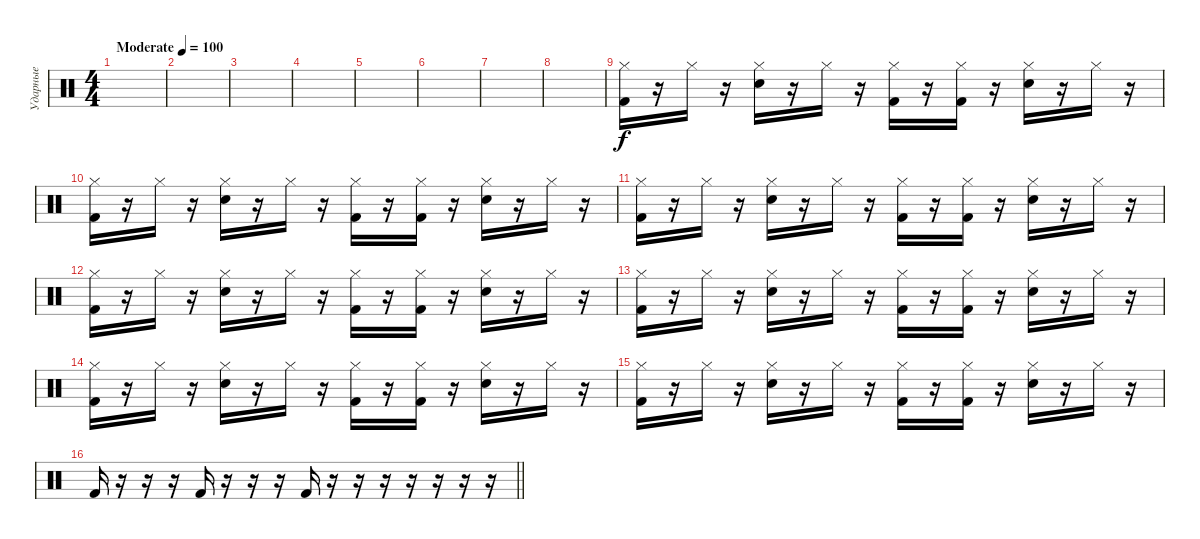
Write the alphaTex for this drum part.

\track ("Ударные" "Ударные") {instrument percussion}
\staff {score}
\articulation defaults
\ts (4 4)
\tempo (100 "Moderate")
\clef neutral
\ks c
|
|
|
|
|
|
|
|
("Kick (hit) 2" "Hi-Hat (closed)").16 r.16 "Hi-Hat (closed)".16 r.16 ("Snare (hit) 2" "Hi-Hat (closed)").16 r.16 "Hi-Hat (closed)".16 r.16 ("Kick (hit) 2" "Hi-Hat (closed)").16 r.16 ("Kick (hit) 2" "Hi-Hat (closed)").16 r.16 ("Snare (hit) 2" "Hi-Hat (closed)").16 r.16 "Hi-Hat (closed)".16 r.16 |
("Kick (hit) 2" "Hi-Hat (closed)").16 r.16 "Hi-Hat (closed)".16 r.16 ("Snare (hit) 2" "Hi-Hat (closed)").16 r.16 "Hi-Hat (closed)".16 r.16 ("Kick (hit) 2" "Hi-Hat (closed)").16 r.16 ("Kick (hit) 2" "Hi-Hat (closed)").16 r.16 ("Snare (hit) 2" "Hi-Hat (closed)").16 r.16 "Hi-Hat (closed)".16 r.16 |
("Kick (hit) 2" "Hi-Hat (closed)").16 r.16 "Hi-Hat (closed)".16 r.16 ("Snare (hit) 2" "Hi-Hat (closed)").16 r.16 "Hi-Hat (closed)".16 r.16 ("Kick (hit) 2" "Hi-Hat (closed)").16 r.16 ("Kick (hit) 2" "Hi-Hat (closed)").16 r.16 ("Snare (hit) 2" "Hi-Hat (closed)").16 r.16 "Hi-Hat (closed)".16 r.16 |
("Kick (hit) 2" "Hi-Hat (closed)").16 r.16 "Hi-Hat (closed)".16 r.16 ("Snare (hit) 2" "Hi-Hat (closed)").16 r.16 "Hi-Hat (closed)".16 r.16 ("Kick (hit) 2" "Hi-Hat (closed)").16 r.16 ("Kick (hit) 2" "Hi-Hat (closed)").16 r.16 ("Snare (hit) 2" "Hi-Hat (closed)").16 r.16 "Hi-Hat (closed)".16 r.16 |
("Kick (hit) 2" "Hi-Hat (closed)").16 r.16 "Hi-Hat (closed)".16 r.16 ("Snare (hit) 2" "Hi-Hat (closed)").16 r.16 "Hi-Hat (closed)".16 r.16 ("Kick (hit) 2" "Hi-Hat (closed)").16 r.16 ("Kick (hit) 2" "Hi-Hat (closed)").16 r.16 ("Snare (hit) 2" "Hi-Hat (closed)").16 r.16 "Hi-Hat (closed)".16 r.16 |
("Kick (hit) 2" "Hi-Hat (closed)").16 r.16 "Hi-Hat (closed)".16 r.16 ("Snare (hit) 2" "Hi-Hat (closed)").16 r.16 "Hi-Hat (closed)".16 r.16 ("Kick (hit) 2" "Hi-Hat (closed)").16 r.16 ("Kick (hit) 2" "Hi-Hat (closed)").16 r.16 ("Snare (hit) 2" "Hi-Hat (closed)").16 r.16 "Hi-Hat (closed)".16 r.16 |
("Kick (hit) 2" "Hi-Hat (closed)").16 r.16 "Hi-Hat (closed)".16 r.16 ("Snare (hit) 2" "Hi-Hat (closed)").16 r.16 "Hi-Hat (closed)".16 r.16 ("Kick (hit) 2" "Hi-Hat (closed)").16 r.16 ("Kick (hit) 2" "Hi-Hat (closed)").16 r.16 ("Snare (hit) 2" "Hi-Hat (closed)").16 r.16 "Hi-Hat (closed)".16 r.16 |
\barLineRight lightlight "Kick (hit) 2".16
r.16 r.16 r.16 "Kick (hit) 2".16 r.16 r.16 r.16 "Kick (hit) 2".16 r.16 r.16 r.16 r.16 r.16 r.16 r.16
